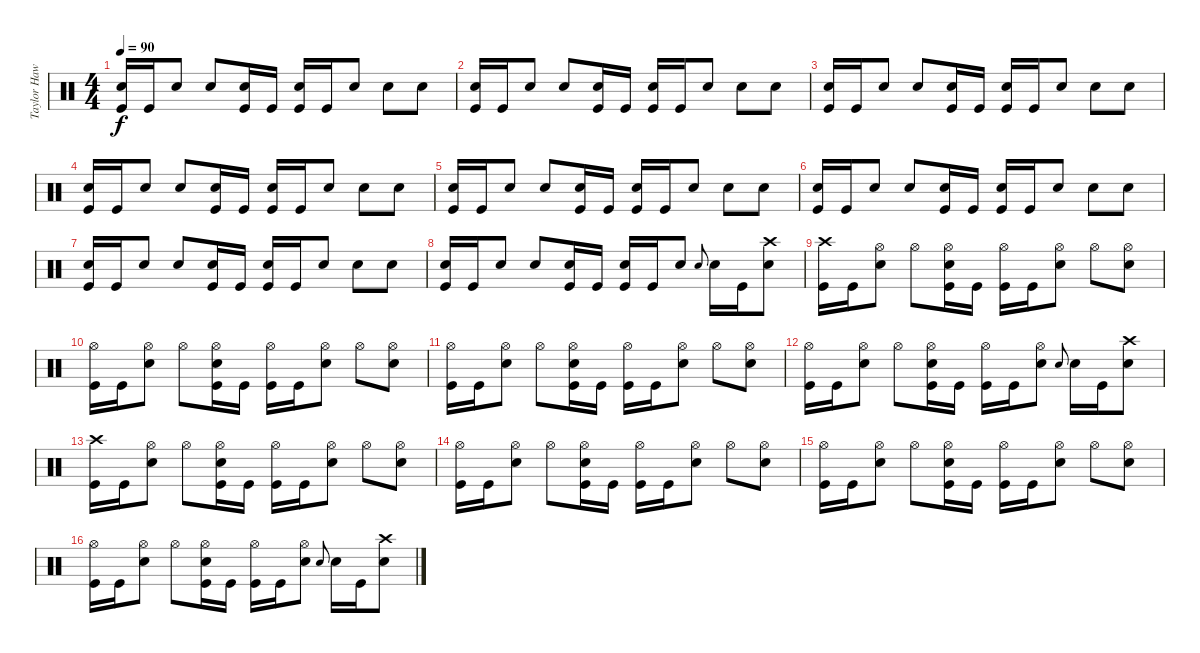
\track ("Taylor Hawkins - Drums" "Taylor Haw") {instrument percussion}
\staff {score}
\articulation defaults
\ts (4 4)
\tempo 90
\clef neutral
\ks c
("Electric Snare (hit)" "Kick (hit)").16{dy f} "Kick (hit)".16 "Electric Snare (hit)".8 "Electric Snare (hit)".8 ("Electric Snare (hit)" "Kick (hit)").16 "Kick (hit)".16 ("Electric Snare (hit)" "Kick (hit)").16 "Kick (hit)".16 "Electric Snare (hit)".8 "Electric Snare (hit)".8 "Electric Snare (hit)".8 |
("Electric Snare (hit)" "Kick (hit)").16 "Kick (hit)".16 "Electric Snare (hit)".8 "Electric Snare (hit)".8 ("Electric Snare (hit)" "Kick (hit)").16 "Kick (hit)".16 ("Electric Snare (hit)" "Kick (hit)").16 "Kick (hit)".16 "Electric Snare (hit)".8 "Electric Snare (hit)".8 "Electric Snare (hit)".8 |
("Electric Snare (hit)" "Kick (hit)").16 "Kick (hit)".16 "Electric Snare (hit)".8 "Electric Snare (hit)".8 ("Electric Snare (hit)" "Kick (hit)").16 "Kick (hit)".16 ("Electric Snare (hit)" "Kick (hit)").16 "Kick (hit)".16 "Electric Snare (hit)".8 "Electric Snare (hit)".8 "Electric Snare (hit)".8 |
("Electric Snare (hit)" "Kick (hit)").16 "Kick (hit)".16 "Electric Snare (hit)".8 "Electric Snare (hit)".8 ("Electric Snare (hit)" "Kick (hit)").16 "Kick (hit)".16 ("Electric Snare (hit)" "Kick (hit)").16 "Kick (hit)".16 "Electric Snare (hit)".8 "Electric Snare (hit)".8 "Electric Snare (hit)".8 |
("Electric Snare (hit)" "Kick (hit)").16 "Kick (hit)".16 "Electric Snare (hit)".8 "Electric Snare (hit)".8 ("Electric Snare (hit)" "Kick (hit)").16 "Kick (hit)".16 ("Electric Snare (hit)" "Kick (hit)").16 "Kick (hit)".16 "Electric Snare (hit)".8 "Electric Snare (hit)".8 "Electric Snare (hit)".8 |
("Electric Snare (hit)" "Kick (hit)").16 "Kick (hit)".16 "Electric Snare (hit)".8 "Electric Snare (hit)".8 ("Electric Snare (hit)" "Kick (hit)").16 "Kick (hit)".16 ("Electric Snare (hit)" "Kick (hit)").16 "Kick (hit)".16 "Electric Snare (hit)".8 "Electric Snare (hit)".8 "Electric Snare (hit)".8 |
("Electric Snare (hit)" "Kick (hit)").16 "Kick (hit)".16 "Electric Snare (hit)".8 "Electric Snare (hit)".8 ("Electric Snare (hit)" "Kick (hit)").16 "Kick (hit)".16 ("Electric Snare (hit)" "Kick (hit)").16 "Kick (hit)".16 "Electric Snare (hit)".8 "Electric Snare (hit)".8 "Electric Snare (hit)".8 |
("Electric Snare (hit)" "Kick (hit)").16 "Kick (hit)".16 "Electric Snare (hit)".8 "Electric Snare (hit)".8 ("Electric Snare (hit)" "Kick (hit)").16 "Kick (hit)".16 ("Electric Snare (hit)" "Kick (hit)").16 "Kick (hit)".16 "Electric Snare (hit)".8 "Electric Snare (hit)".8{gr onbeat} "Electric Snare (hit)".16 "Kick (hit)".16 ("Crash high (hit)" "Electric Snare (hit)").8 |
("Crash high (hit)" "Kick (hit)").16 "Kick (hit)".16 ("Hi-Hat (open)" "Electric Snare (hit)").8 "Hi-Hat (open)".8 ("Hi-Hat (open)" "Electric Snare (hit)" "Kick (hit)").16 "Kick (hit)".16 ("Hi-Hat (open)" "Kick (hit)").16 "Kick (hit)".16 ("Hi-Hat (open)" "Electric Snare (hit)").8 "Hi-Hat (open)".8 ("Hi-Hat (open)" "Electric Snare (hit)").8 |
("Hi-Hat (open)" "Kick (hit)").16 "Kick (hit)".16 ("Hi-Hat (open)" "Electric Snare (hit)").8 "Hi-Hat (open)".8 ("Hi-Hat (open)" "Electric Snare (hit)" "Kick (hit)").16 "Kick (hit)".16 ("Hi-Hat (open)" "Kick (hit)").16 "Kick (hit)".16 ("Hi-Hat (open)" "Electric Snare (hit)").8 "Hi-Hat (open)".8 ("Hi-Hat (open)" "Electric Snare (hit)").8 |
("Hi-Hat (open)" "Kick (hit)").16 "Kick (hit)".16 ("Hi-Hat (open)" "Electric Snare (hit)").8 "Hi-Hat (open)".8 ("Hi-Hat (open)" "Electric Snare (hit)" "Kick (hit)").16 "Kick (hit)".16 ("Hi-Hat (open)" "Kick (hit)").16 "Kick (hit)".16 ("Hi-Hat (open)" "Electric Snare (hit)").8 "Hi-Hat (open)".8 ("Hi-Hat (open)" "Electric Snare (hit)").8 |
("Hi-Hat (open)" "Kick (hit)").16 "Kick (hit)".16 ("Hi-Hat (open)" "Electric Snare (hit)").8 "Hi-Hat (open)".8 ("Hi-Hat (open)" "Electric Snare (hit)" "Kick (hit)").16 "Kick (hit)".16 ("Hi-Hat (open)" "Kick (hit)").16 "Kick (hit)".16 ("Hi-Hat (open)" "Electric Snare (hit)").8 "Electric Snare (hit)".8{gr onbeat} "Electric Snare (hit)".16 "Kick (hit)".16 ("Crash high (hit)" "Electric Snare (hit)").8 |
("Crash high (hit)" "Kick (hit)").16 "Kick (hit)".16 ("Hi-Hat (open)" "Electric Snare (hit)").8 "Hi-Hat (open)".8 ("Hi-Hat (open)" "Electric Snare (hit)" "Kick (hit)").16 "Kick (hit)".16 ("Hi-Hat (open)" "Kick (hit)").16 "Kick (hit)".16 ("Hi-Hat (open)" "Electric Snare (hit)").8 "Hi-Hat (open)".8 ("Hi-Hat (open)" "Electric Snare (hit)").8 |
("Hi-Hat (open)" "Kick (hit)").16 "Kick (hit)".16 ("Hi-Hat (open)" "Electric Snare (hit)").8 "Hi-Hat (open)".8 ("Hi-Hat (open)" "Electric Snare (hit)" "Kick (hit)").16 "Kick (hit)".16 ("Hi-Hat (open)" "Kick (hit)").16 "Kick (hit)".16 ("Hi-Hat (open)" "Electric Snare (hit)").8 "Hi-Hat (open)".8 ("Hi-Hat (open)" "Electric Snare (hit)").8 |
("Hi-Hat (open)" "Kick (hit)").16 "Kick (hit)".16 ("Hi-Hat (open)" "Electric Snare (hit)").8 "Hi-Hat (open)".8 ("Hi-Hat (open)" "Electric Snare (hit)" "Kick (hit)").16 "Kick (hit)".16 ("Hi-Hat (open)" "Kick (hit)").16 "Kick (hit)".16 ("Hi-Hat (open)" "Electric Snare (hit)").8 "Hi-Hat (open)".8 ("Hi-Hat (open)" "Electric Snare (hit)").8 |
("Hi-Hat (open)" "Kick (hit)").16 "Kick (hit)".16 ("Hi-Hat (open)" "Electric Snare (hit)").8 "Hi-Hat (open)".8 ("Hi-Hat (open)" "Electric Snare (hit)" "Kick (hit)").16 "Kick (hit)".16 ("Hi-Hat (open)" "Kick (hit)").16 "Kick (hit)".16 ("Hi-Hat (open)" "Electric Snare (hit)").8 "Electric Snare (hit)".8{gr onbeat} "Electric Snare (hit)".16 "Kick (hit)".16 ("Crash high (hit)" "Electric Snare (hit)").8
